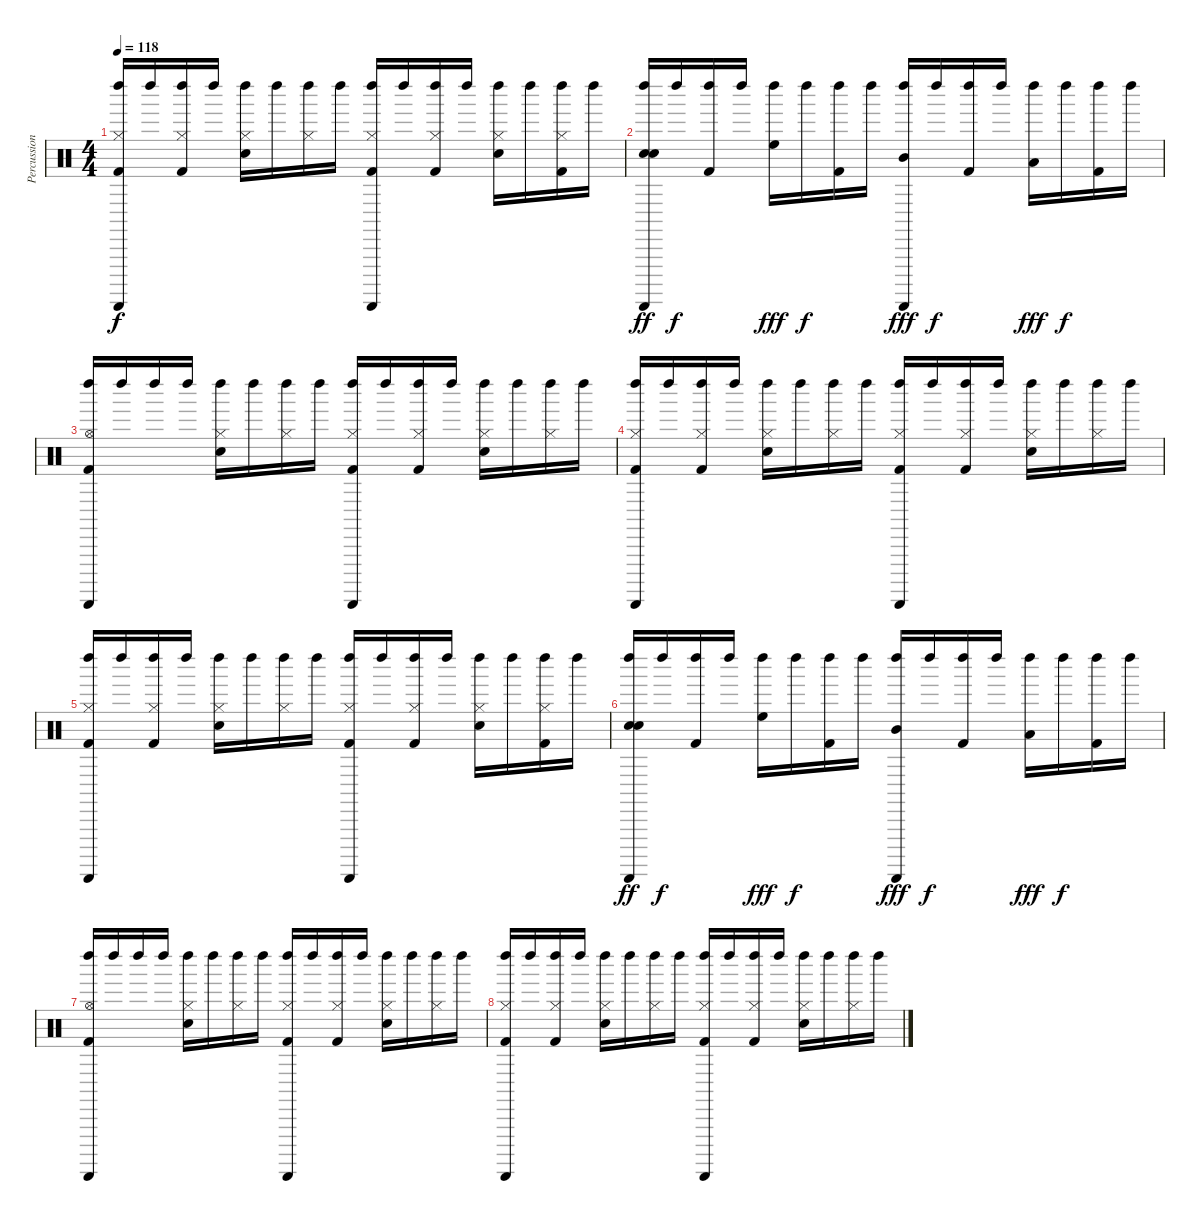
\track ("Percussions" "Percussion") {instrument percussion}
\staff {score}
\articulation defaults
\ts (4 4)
\tempo 118
\clef neutral
\ks c
("Guiro (scrap-return)" "Left Maraca (hit)" "Hi-Hat (closed)" "Kick (hit) 2").16{dy f} "Left Maraca (hit)".16 ("Left Maraca (hit)" "Hi-Hat (closed)" "Kick (hit) 2").16 "Left Maraca (hit)".16 ("Left Maraca (hit)" "Hi-Hat (closed)" "Snare (hit) 2").16 "Left Maraca (hit)".16 ("Left Maraca (hit)" "Hi-Hat (closed)").16 "Left Maraca (hit)".16 ("Guiro (scrap-return)" "Left Maraca (hit)" "Hi-Hat (closed)" "Kick (hit) 2").16 "Left Maraca (hit)".16 ("Left Maraca (hit)" "Hi-Hat (closed)" "Kick (hit) 2").16 "Left Maraca (hit)".16 ("Left Maraca (hit)" "Hi-Hat (closed)" "Snare (hit) 2").16 "Left Maraca (hit)".16 ("Left Maraca (hit)" "Hi-Hat (closed)" "Kick (hit) 2").16 "Left Maraca (hit)".16 |
("Guiro (scrap-return)" "Left Maraca (hit)" "Snare (hit) 2" "Snare (hit) 2").16{dy ff} "Left Maraca (hit)".16{dy f} ("Left Maraca (hit)" "Kick (hit) 2").16 "Left Maraca (hit)".16 ("Left Maraca (hit)" "High Floor Tom (hit)").16{dy fff} "Left Maraca (hit)".16{dy f} ("Left Maraca (hit)" "Kick (hit) 2").16 "Left Maraca (hit)".16 ("Guiro (scrap-return)" "Left Maraca (hit)" "Mid Tom (hit)").16{dy fff} "Left Maraca (hit)".16{dy f} ("Left Maraca (hit)" "Kick (hit) 2").16 "Left Maraca (hit)".16 ("Left Maraca (hit)" "Low Tom (hit)").16{dy fff} "Left Maraca (hit)".16{dy f} ("Left Maraca (hit)" "Kick (hit) 2").16 "Left Maraca (hit)".16 |
("Guiro (scrap-return)" "Left Maraca (hit)" "Hi-Hat (open)" "Kick (hit) 2").16 "Left Maraca (hit)".16 "Left Maraca (hit)".16 "Left Maraca (hit)".16 ("Left Maraca (hit)" "Hi-Hat (closed)" "Snare (hit) 2").16 "Left Maraca (hit)".16 ("Left Maraca (hit)" "Hi-Hat (closed)").16 "Left Maraca (hit)".16 ("Guiro (scrap-return)" "Left Maraca (hit)" "Hi-Hat (closed)" "Kick (hit) 2").16 "Left Maraca (hit)".16 ("Left Maraca (hit)" "Hi-Hat (closed)" "Kick (hit) 2").16 "Left Maraca (hit)".16 ("Left Maraca (hit)" "Hi-Hat (closed)" "Snare (hit) 2").16 "Left Maraca (hit)".16 ("Left Maraca (hit)" "Hi-Hat (closed)").16 "Left Maraca (hit)".16 |
("Guiro (scrap-return)" "Left Maraca (hit)" "Hi-Hat (closed)" "Kick (hit) 2").16 "Left Maraca (hit)".16 ("Left Maraca (hit)" "Hi-Hat (closed)" "Kick (hit) 2").16 "Left Maraca (hit)".16 ("Left Maraca (hit)" "Hi-Hat (closed)" "Snare (hit) 2").16 "Left Maraca (hit)".16 ("Left Maraca (hit)" "Hi-Hat (closed)").16 "Left Maraca (hit)".16 ("Guiro (scrap-return)" "Left Maraca (hit)" "Hi-Hat (closed)" "Kick (hit) 2").16 "Left Maraca (hit)".16 ("Left Maraca (hit)" "Hi-Hat (closed)" "Kick (hit) 2").16 "Left Maraca (hit)".16 ("Left Maraca (hit)" "Hi-Hat (closed)" "Snare (hit) 2").16 "Left Maraca (hit)".16 ("Left Maraca (hit)" "Hi-Hat (closed)").16 "Left Maraca (hit)".16 |
("Guiro (scrap-return)" "Left Maraca (hit)" "Hi-Hat (closed)" "Kick (hit) 2").16 "Left Maraca (hit)".16 ("Left Maraca (hit)" "Hi-Hat (closed)" "Kick (hit) 2").16 "Left Maraca (hit)".16 ("Left Maraca (hit)" "Hi-Hat (closed)" "Snare (hit) 2").16 "Left Maraca (hit)".16 ("Left Maraca (hit)" "Hi-Hat (closed)").16 "Left Maraca (hit)".16 ("Guiro (scrap-return)" "Left Maraca (hit)" "Hi-Hat (closed)" "Kick (hit) 2").16 "Left Maraca (hit)".16 ("Left Maraca (hit)" "Hi-Hat (closed)" "Kick (hit) 2").16 "Left Maraca (hit)".16 ("Left Maraca (hit)" "Hi-Hat (closed)" "Snare (hit) 2").16 "Left Maraca (hit)".16 ("Left Maraca (hit)" "Hi-Hat (closed)" "Kick (hit) 2").16 "Left Maraca (hit)".16 |
("Guiro (scrap-return)" "Left Maraca (hit)" "Snare (hit) 2" "Snare (hit) 2").16{dy ff} "Left Maraca (hit)".16{dy f} ("Left Maraca (hit)" "Kick (hit) 2").16 "Left Maraca (hit)".16 ("Left Maraca (hit)" "High Floor Tom (hit)").16{dy fff} "Left Maraca (hit)".16{dy f} ("Left Maraca (hit)" "Kick (hit) 2").16 "Left Maraca (hit)".16 ("Guiro (scrap-return)" "Left Maraca (hit)" "Mid Tom (hit)").16{dy fff} "Left Maraca (hit)".16{dy f} ("Left Maraca (hit)" "Kick (hit) 2").16 "Left Maraca (hit)".16 ("Left Maraca (hit)" "Low Tom (hit)").16{dy fff} "Left Maraca (hit)".16{dy f} ("Left Maraca (hit)" "Kick (hit) 2").16 "Left Maraca (hit)".16 |
("Guiro (scrap-return)" "Left Maraca (hit)" "Hi-Hat (open)" "Kick (hit) 2").16 "Left Maraca (hit)".16 "Left Maraca (hit)".16 "Left Maraca (hit)".16 ("Left Maraca (hit)" "Hi-Hat (closed)" "Snare (hit) 2").16 "Left Maraca (hit)".16 ("Left Maraca (hit)" "Hi-Hat (closed)").16 "Left Maraca (hit)".16 ("Guiro (scrap-return)" "Left Maraca (hit)" "Hi-Hat (closed)" "Kick (hit) 2").16 "Left Maraca (hit)".16 ("Left Maraca (hit)" "Hi-Hat (closed)" "Kick (hit) 2").16 "Left Maraca (hit)".16 ("Left Maraca (hit)" "Hi-Hat (closed)" "Snare (hit) 2").16 "Left Maraca (hit)".16 ("Left Maraca (hit)" "Hi-Hat (closed)").16 "Left Maraca (hit)".16 |
("Guiro (scrap-return)" "Left Maraca (hit)" "Hi-Hat (closed)" "Kick (hit) 2").16 "Left Maraca (hit)".16 ("Left Maraca (hit)" "Hi-Hat (closed)" "Kick (hit) 2").16 "Left Maraca (hit)".16 ("Left Maraca (hit)" "Hi-Hat (closed)" "Snare (hit) 2").16 "Left Maraca (hit)".16 ("Left Maraca (hit)" "Hi-Hat (closed)").16 "Left Maraca (hit)".16 ("Guiro (scrap-return)" "Left Maraca (hit)" "Hi-Hat (closed)" "Kick (hit) 2").16 "Left Maraca (hit)".16 ("Left Maraca (hit)" "Hi-Hat (closed)" "Kick (hit) 2").16 "Left Maraca (hit)".16 ("Left Maraca (hit)" "Hi-Hat (closed)" "Snare (hit) 2").16 "Left Maraca (hit)".16 ("Left Maraca (hit)" "Hi-Hat (closed)").16 "Left Maraca (hit)".16
